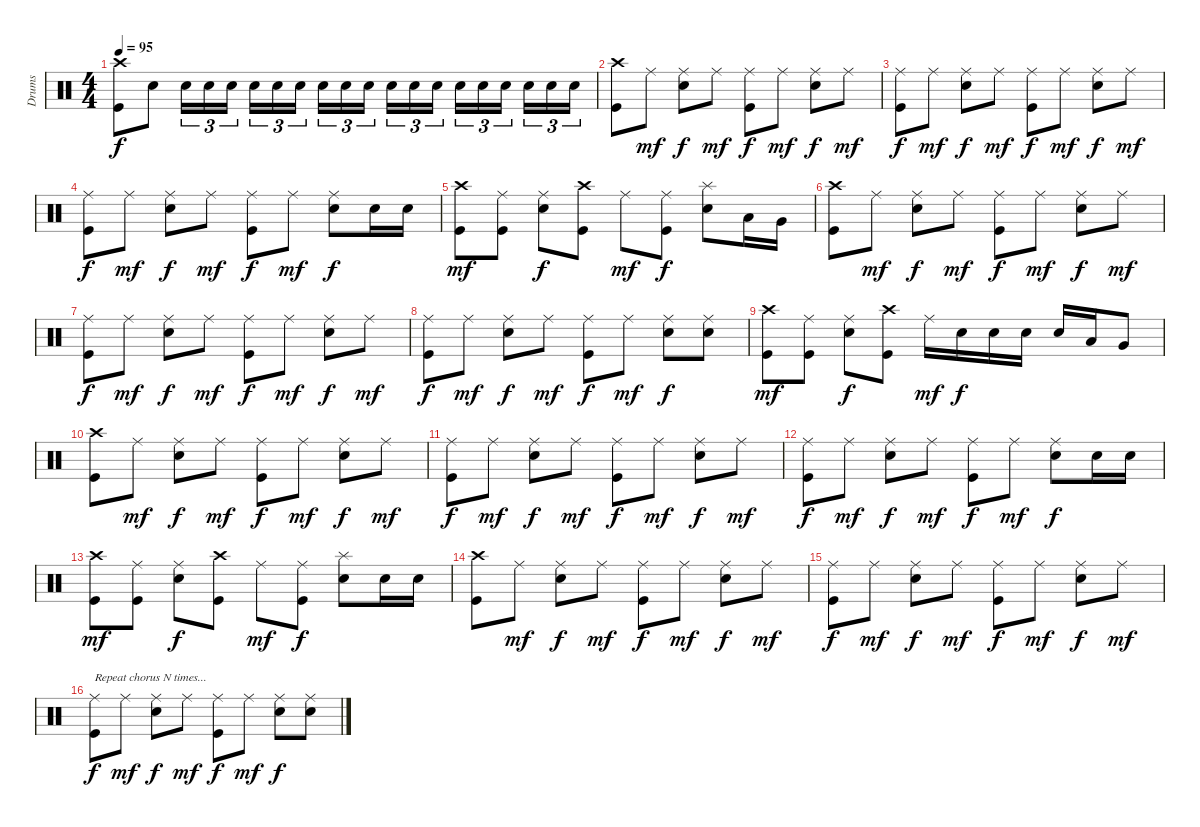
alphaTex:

\track ("Drums" "Drums") {instrument percussion}
\staff {score}
\articulation defaults
\ts (4 4)
\tempo 95
\clef neutral
\ks c
("Crash high (hit)" "Kick (hit)").8{dy f} "Snare (hit) 2".8 "Snare (hit) 2".16{tu (3 2)} "Snare (hit) 2".16{tu (3 2)} "Snare (hit) 2".16{tu (3 2)} "Snare (hit) 2".16{tu (3 2)} "Snare (hit) 2".16{tu (3 2)} "Snare (hit) 2".16{tu (3 2)} "Snare (hit) 2".16{tu (3 2)} "Snare (hit) 2".16{tu (3 2)} "Snare (hit) 2".16{tu (3 2)} "Snare (hit) 2".16{tu (3 2)} "Snare (hit) 2".16{tu (3 2)} "Snare (hit) 2".16{tu (3 2)} "Snare (hit) 2".16{tu (3 2)} "Snare (hit) 2".16{tu (3 2)} "Snare (hit) 2".16{tu (3 2)} "Snare (hit) 2".16{tu (3 2)} "Snare (hit) 2".16{tu (3 2)} "Snare (hit) 2".16{tu (3 2)} |
("Crash high (hit)" "Kick (hit)").8 "Ride (middle)".8{dy mf} ("Ride (middle)" "Snare (hit) 2").8{dy f} "Ride (middle)".8{dy mf} ("Ride (middle)" "Kick (hit)").8{dy f} "Ride (middle)".8{dy mf} ("Ride (middle)" "Snare (hit) 2").8{dy f} "Ride (middle)".8{dy mf} |
("Ride (middle)" "Kick (hit)").8{dy f} "Ride (middle)".8{dy mf} ("Ride (middle)" "Snare (hit) 2").8{dy f} "Ride (middle)".8{dy mf} ("Ride (middle)" "Kick (hit)").8{dy f} "Ride (middle)".8{dy mf} ("Ride (middle)" "Snare (hit) 2").8{dy f} "Ride (middle)".8{dy mf} |
("Ride (middle)" "Kick (hit)").8{dy f} "Ride (middle)".8{dy mf} ("Ride (middle)" "Snare (hit) 2").8{dy f} "Ride (middle)".8{dy mf} ("Ride (middle)" "Kick (hit)").8{dy f} "Ride (middle)".8{dy mf} ("Ride (middle)" "Snare (hit) 2").8{dy f} "Snare (hit) 2".16 "Snare (hit) 2".16 |
("Crash high (hit)" "Kick (hit)").8{dy mf} ("Ride (middle)" "Kick (hit)").8 ("Ride (middle)" "Snare (hit) 2").8{dy f} ("Crash high (hit)" "Kick (hit)").8 "Ride (middle)".8{dy mf} ("Ride (middle)" "Kick (hit)").8{dy f} ("Splash (hit)" "Snare (hit) 2").8 "Low Tom (hit)".16 "Very Low Tom (hit)".16 |
("Crash high (hit)" "Kick (hit)").8 "Ride (middle)".8{dy mf} ("Ride (middle)" "Snare (hit) 2").8{dy f} "Ride (middle)".8{dy mf} ("Ride (middle)" "Kick (hit)").8{dy f} "Ride (middle)".8{dy mf} ("Ride (middle)" "Snare (hit) 2").8{dy f} "Ride (middle)".8{dy mf} |
("Ride (middle)" "Kick (hit)").8{dy f} "Ride (middle)".8{dy mf} ("Ride (middle)" "Snare (hit) 2").8{dy f} "Ride (middle)".8{dy mf} ("Ride (middle)" "Kick (hit)").8{dy f} "Ride (middle)".8{dy mf} ("Ride (middle)" "Snare (hit) 2").8{dy f} "Ride (middle)".8{dy mf} |
("Ride (middle)" "Kick (hit)").8{dy f} "Ride (middle)".8{dy mf} ("Ride (middle)" "Snare (hit) 2").8{dy f} "Ride (middle)".8{dy mf} ("Ride (middle)" "Kick (hit)").8{dy f} "Ride (middle)".8{dy mf} ("Ride (middle)" "Snare (hit) 2").8{dy f} ("Ride (middle)" "Snare (hit) 2").8 |
("Crash high (hit)" "Kick (hit)").8{dy mf} ("Ride (middle)" "Kick (hit)").8 ("Ride (middle)" "Snare (hit) 2").8{dy f} ("Crash high (hit)" "Kick (hit)").8 "Ride (middle)".16{dy mf} "Snare (hit) 2".16{dy f} "Snare (hit) 2".16 "Snare (hit) 2".16 "Snare (hit) 2".16 "Low Tom (hit)".16 "Very Low Tom (hit)".8 |
("Crash high (hit)" "Kick (hit)").8 "Ride (middle)".8{dy mf} ("Ride (middle)" "Snare (hit) 2").8{dy f} "Ride (middle)".8{dy mf} ("Ride (middle)" "Kick (hit)").8{dy f} "Ride (middle)".8{dy mf} ("Ride (middle)" "Snare (hit) 2").8{dy f} "Ride (middle)".8{dy mf} |
("Ride (middle)" "Kick (hit)").8{dy f} "Ride (middle)".8{dy mf} ("Ride (middle)" "Snare (hit) 2").8{dy f} "Ride (middle)".8{dy mf} ("Ride (middle)" "Kick (hit)").8{dy f} "Ride (middle)".8{dy mf} ("Ride (middle)" "Snare (hit) 2").8{dy f} "Ride (middle)".8{dy mf} |
("Ride (middle)" "Kick (hit)").8{dy f} "Ride (middle)".8{dy mf} ("Ride (middle)" "Snare (hit) 2").8{dy f} "Ride (middle)".8{dy mf} ("Ride (middle)" "Kick (hit)").8{dy f} "Ride (middle)".8{dy mf} ("Ride (middle)" "Snare (hit) 2").8{dy f} "Snare (hit) 2".16 "Snare (hit) 2".16 |
("Crash high (hit)" "Kick (hit)").8{dy mf} ("Ride (middle)" "Kick (hit)").8 ("Ride (middle)" "Snare (hit) 2").8{dy f} ("Crash high (hit)" "Kick (hit)").8 "Ride (middle)".8{dy mf} ("Ride (middle)" "Kick (hit)").8{dy f} ("Splash (hit)" "Snare (hit) 2").8 "Snare (hit) 2".16 "Snare (hit) 2".16 |
("Crash high (hit)" "Kick (hit)").8 "Ride (middle)".8{dy mf} ("Ride (middle)" "Snare (hit) 2").8{dy f} "Ride (middle)".8{dy mf} ("Ride (middle)" "Kick (hit)").8{dy f} "Ride (middle)".8{dy mf} ("Ride (middle)" "Snare (hit) 2").8{dy f} "Ride (middle)".8{dy mf} |
("Ride (middle)" "Kick (hit)").8{dy f} "Ride (middle)".8{dy mf} ("Ride (middle)" "Snare (hit) 2").8{dy f} "Ride (middle)".8{dy mf} ("Ride (middle)" "Kick (hit)").8{dy f} "Ride (middle)".8{dy mf} ("Ride (middle)" "Snare (hit) 2").8{dy f} "Ride (middle)".8{dy mf} |
("Ride (middle)" "Kick (hit)").8{txt "Repeat chorus N times..." dy f} "Ride (middle)".8{dy mf} ("Ride (middle)" "Snare (hit) 2").8{dy f} "Ride (middle)".8{dy mf} ("Ride (middle)" "Kick (hit)").8{dy f} "Ride (middle)".8{dy mf} ("Ride (middle)" "Snare (hit) 2").8{dy f} ("Ride (middle)" "Snare (hit) 2").8
